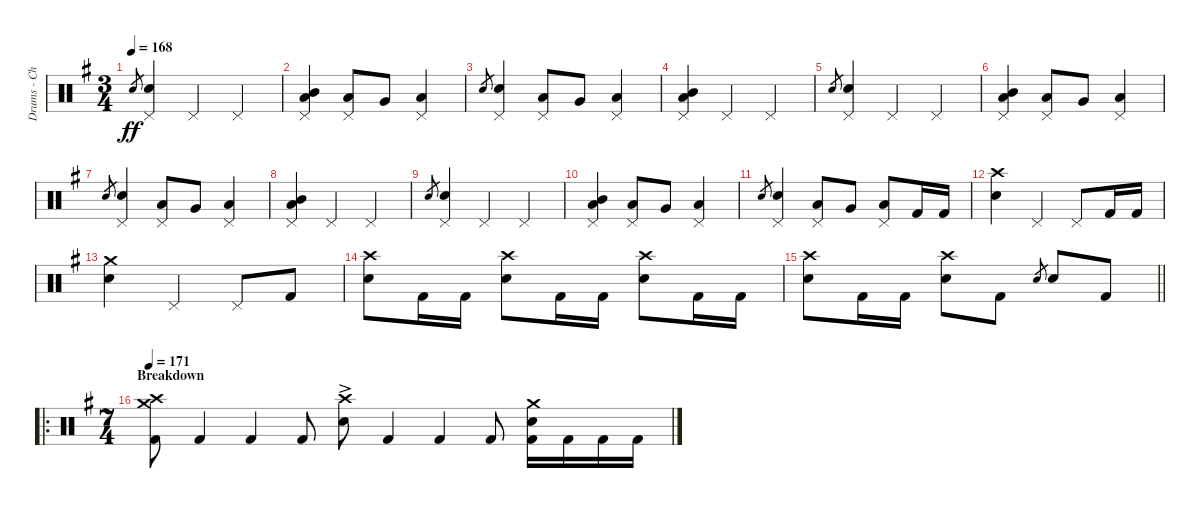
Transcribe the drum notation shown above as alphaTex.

\track ("Drums - Chris Hornbrook" "Drums - Ch") {instrument percussion}
\staff {score}
\articulation defaults
\ts (3 4)
\tempo 168
\clef neutral
\ks eminor "Electric Snare (hit)".8{gr dy ff}
("Pedal Hi-Hat (hit)" "Electric Snare (hit)").4 "Pedal Hi-Hat (hit)".4 "Pedal Hi-Hat (hit)".4 |
("Pedal Hi-Hat (hit)" "Mid Tom (hit)" "Low Tom (hit)").4{bu 120} ("Pedal Hi-Hat (hit)" "Low Tom (hit)").8 "Very Low Tom (hit)".8 ("Pedal Hi-Hat (hit)" "Low Floor Tom (hit)").4 |
"Electric Snare (hit)".8{gr} ("Pedal Hi-Hat (hit)" "Electric Snare (hit)").4 ("Pedal Hi-Hat (hit)" "Low Tom (hit)").8 "Very Low Tom (hit)".8 ("Pedal Hi-Hat (hit)" "Low Floor Tom (hit)").4 |
("Pedal Hi-Hat (hit)" "Mid Tom (hit)" "Low Tom (hit)").4{bu 120} "Pedal Hi-Hat (hit)".4 "Pedal Hi-Hat (hit)".4 |
"Electric Snare (hit)".8{gr} ("Pedal Hi-Hat (hit)" "Electric Snare (hit)").4 "Pedal Hi-Hat (hit)".4 "Pedal Hi-Hat (hit)".4 |
("Pedal Hi-Hat (hit)" "Mid Tom (hit)" "Low Tom (hit)").4{bu 120} ("Pedal Hi-Hat (hit)" "Low Tom (hit)").8 "Very Low Tom (hit)".8 ("Pedal Hi-Hat (hit)" "Low Floor Tom (hit)").4 |
"Electric Snare (hit)".8{gr} ("Pedal Hi-Hat (hit)" "Electric Snare (hit)").4 ("Pedal Hi-Hat (hit)" "Low Tom (hit)").8 "Very Low Tom (hit)".8 ("Pedal Hi-Hat (hit)" "Low Floor Tom (hit)").4 |
("Pedal Hi-Hat (hit)" "Mid Tom (hit)" "Low Tom (hit)").4{bu 120} "Pedal Hi-Hat (hit)".4 "Pedal Hi-Hat (hit)".4 |
"Electric Snare (hit)".8{gr} ("Pedal Hi-Hat (hit)" "Electric Snare (hit)").4 "Pedal Hi-Hat (hit)".4 "Pedal Hi-Hat (hit)".4 |
("Pedal Hi-Hat (hit)" "Mid Tom (hit)" "Low Tom (hit)").4{bu 120} ("Pedal Hi-Hat (hit)" "Low Tom (hit)").8 "Very Low Tom (hit)".8 ("Pedal Hi-Hat (hit)" "Low Floor Tom (hit)").4 |
"Electric Snare (hit)".8{gr} ("Pedal Hi-Hat (hit)" "Electric Snare (hit)").4 ("Pedal Hi-Hat (hit)" "Low Tom (hit)").8 "Very Low Tom (hit)".8 ("Pedal Hi-Hat (hit)" "Low Floor Tom (hit)").8 "Kick (hit) 2".16 "Kick (hit) 2".16 |
("Crash high (hit)" "Electric Snare (hit)").4 "Pedal Hi-Hat (hit)".4 "Pedal Hi-Hat (hit)".8 "Kick (hit) 2".16 "Kick (hit) 2".16 |
("Crash medium (hit)" "Electric Snare (hit)").4 "Pedal Hi-Hat (hit)".4 "Pedal Hi-Hat (hit)".8 "Kick (hit) 2".8 |
("Crash high (hit)" "Electric Snare (hit)").8 "Kick (hit) 2".16 "Kick (hit) 2".16 ("Crash high (hit)" "Electric Snare (hit)").8 "Kick (hit) 2".16 "Kick (hit) 2".16 ("Crash high (hit)" "Electric Snare (hit)").8 "Kick (hit) 2".16 "Kick (hit) 2".16 |
\barLineRight lightlight
("Crash high (hit)" "Electric Snare (hit)").8 "Kick (hit) 2".16 "Kick (hit) 2".16 ("Crash high (hit)" "Electric Snare (hit)").8 "Kick (hit) 2".8 "Electric Snare (hit)".8{gr} "Electric Snare (hit)".8 "Kick (hit) 2".8 |
\ro
\ts (7 4)
\section ("" "Breakdown")
\tempo 171
("Crash medium (hit)" "Crash high (hit)" "Kick (hit) 2").8 "Kick (hit) 2".4 "Kick (hit) 2".4 "Kick (hit) 2".8 ("Crash high (hit)"{ac} "Electric Snare (hit)").8 "Kick (hit) 2".4 "Kick (hit) 2".4 "Kick (hit) 2".8 ("Crash medium (hit)" "Electric Snare (hit)" "Kick (hit) 2").16 "Kick (hit) 2".16 "Kick (hit) 2".16 "Kick (hit) 2".16
